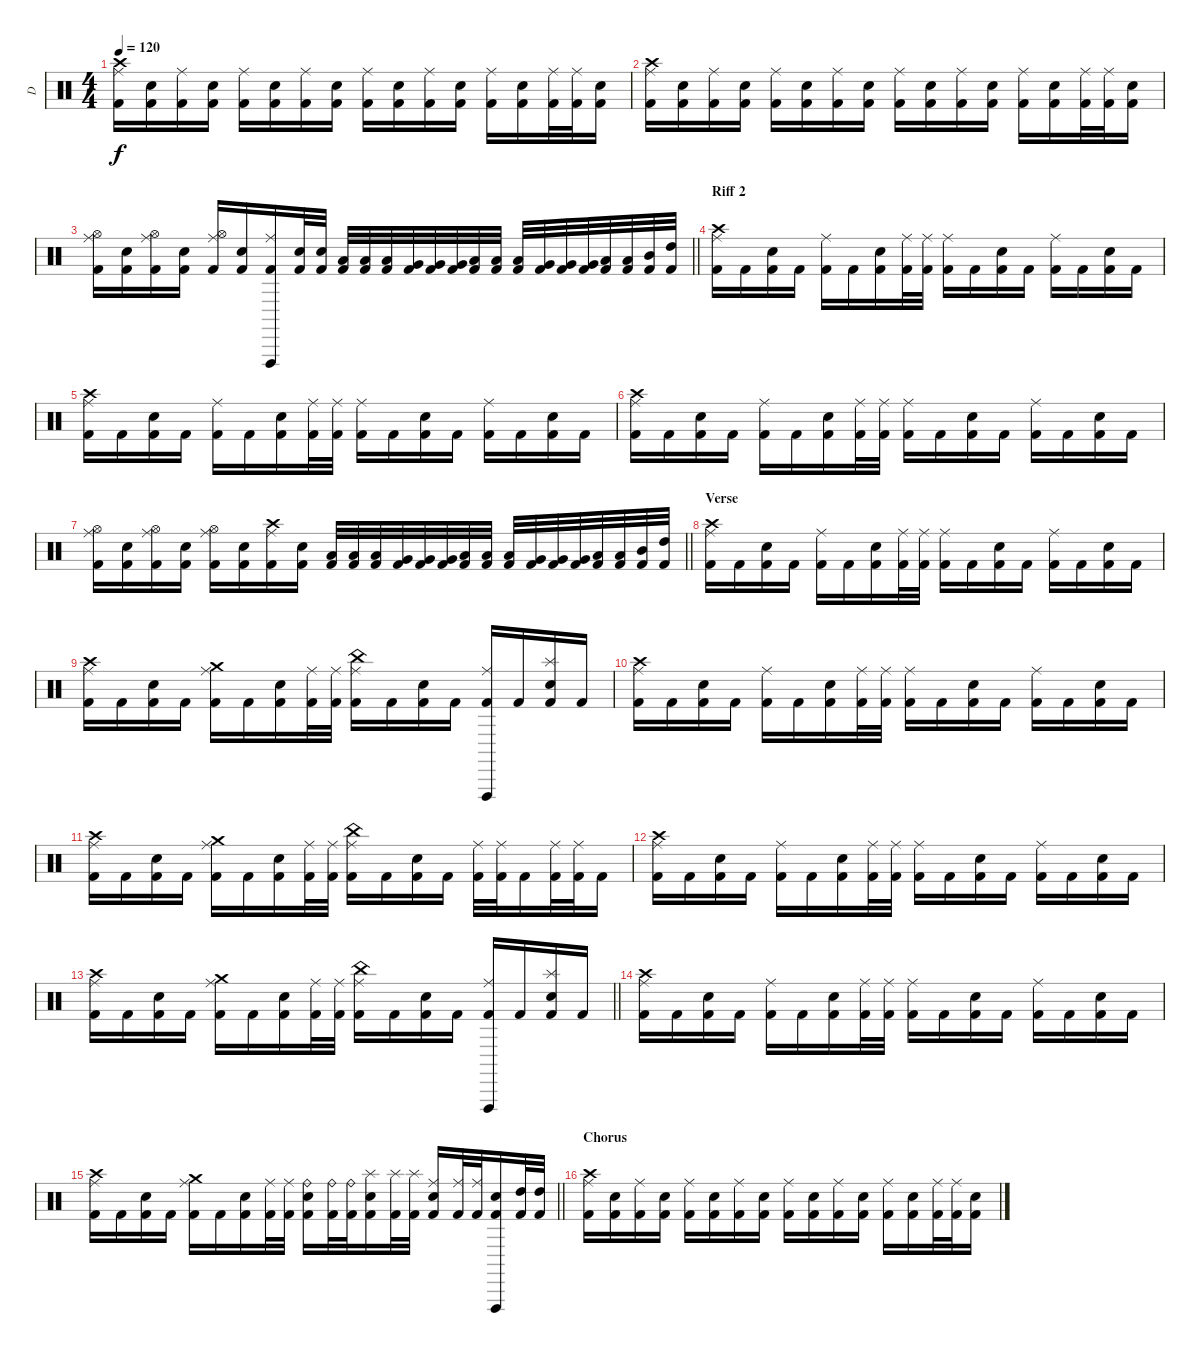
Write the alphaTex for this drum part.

\track ("D" "D") {instrument percussion}
\staff {score}
\articulation defaults
\ts (4 4)
\tempo 120
\clef neutral
\ks c
("Crash high (hit)" "Ride (middle)" "Kick (hit) 2").16{dy f} ("Electric Snare (hit)" "Kick (hit) 2").16 ("Ride (middle)" "Kick (hit) 2").16 ("Electric Snare (hit)" "Kick (hit) 2").16 ("Ride (middle)" "Kick (hit) 2").16 ("Electric Snare (hit)" "Kick (hit) 2").16 ("Ride (middle)" "Kick (hit) 2").16 ("Electric Snare (hit)" "Kick (hit) 2").16 ("Ride (middle)" "Kick (hit) 2").16 ("Electric Snare (hit)" "Kick (hit) 2").16 ("Ride (middle)" "Kick (hit) 2").16 ("Electric Snare (hit)" "Kick (hit) 2").16 ("Ride (middle)" "Kick (hit) 2").16 ("Electric Snare (hit)" "Kick (hit) 2").16 ("Ride (middle)" "Kick (hit) 2").32 ("Ride (middle)" "Kick (hit) 2").32 ("Electric Snare (hit)" "Kick (hit) 2").16 |
("Crash high (hit)" "Ride (middle)" "Kick (hit) 2").16 ("Electric Snare (hit)" "Kick (hit) 2").16 ("Ride (middle)" "Kick (hit) 2").16 ("Electric Snare (hit)" "Kick (hit) 2").16 ("Ride (middle)" "Kick (hit) 2").16 ("Electric Snare (hit)" "Kick (hit) 2").16 ("Ride (middle)" "Kick (hit) 2").16 ("Electric Snare (hit)" "Kick (hit) 2").16 ("Ride (middle)" "Kick (hit) 2").16 ("Electric Snare (hit)" "Kick (hit) 2").16 ("Ride (middle)" "Kick (hit) 2").16 ("Electric Snare (hit)" "Kick (hit) 2").16 ("Ride (middle)" "Kick (hit) 2").16 ("Electric Snare (hit)" "Kick (hit) 2").16 ("Ride (middle)" "Kick (hit) 2").32 ("Ride (middle)" "Kick (hit) 2").32 ("Electric Snare (hit)" "Kick (hit) 2").16 |
\barLineRight lightlight
("Hi-Hat (open)" "Ride (middle)" "Kick (hit) 2").16 ("Electric Snare (hit)" "Kick (hit) 2").16 ("Hi-Hat (open)" "Ride (middle)" "Kick (hit) 2").16 ("Electric Snare (hit)" "Kick (hit) 2").16 ("Hi-Hat (open)" "Ride (middle)" "Kick (hit) 2").16 ("Electric Snare (hit)" "Kick (hit) 2").16 ("Vibraslap (hit)" "Ride (middle)" "Kick (hit) 2").16 ("Electric Snare (hit)" "Kick (hit) 2").32 ("Electric Snare (hit)" "Kick (hit) 2").32 ("Low Tom (hit)" "Kick (hit) 2").32 ("Low Tom (hit)" "Kick (hit) 2").32 ("Low Tom (hit)" "Kick (hit) 2").32 ("Very Low Tom (hit)" "Kick (hit) 2").32 ("Very Low Tom (hit)" "Kick (hit) 2").32 ("Very Low Tom (hit)" "Kick (hit) 2").32 ("Low Floor Tom (hit)" "Kick (hit) 2").32 ("Low Floor Tom (hit)" "Kick (hit) 2").32 ("Low Floor Tom (hit)" "Kick (hit) 2").32 ("Very Low Tom (hit)" "Kick (hit) 2").32 ("Very Low Tom (hit)" "Kick (hit) 2").32 ("Very Low Tom (hit)" "Kick (hit) 2").32 ("Low Tom (hit)" "Kick (hit) 2").32 ("Low Tom (hit)" "Kick (hit) 2").32 ("Mid Tom (hit)" "Kick (hit) 2").32 ("High Tom (hit)" "Kick (hit) 2").32 |
\section ("" "Riff 2")
("Crash high (hit)" "Ride (middle)" "Kick (hit) 2").16 "Kick (hit) 2".16 ("Electric Snare (hit)" "Kick (hit) 2").16 "Kick (hit) 2".16 ("Ride (middle)" "Kick (hit) 2").16 "Kick (hit) 2".16 ("Electric Snare (hit)" "Kick (hit) 2").16 ("Ride (middle)" "Kick (hit) 2").32 ("Ride (middle)" "Kick (hit) 2").32 ("Ride (middle)" "Kick (hit) 2").16 "Kick (hit) 2".16 ("Electric Snare (hit)" "Kick (hit) 2").16 "Kick (hit) 2".16 ("Ride (middle)" "Kick (hit) 2").16 "Kick (hit) 2".16 ("Electric Snare (hit)" "Kick (hit) 2").16 "Kick (hit) 2".16 |
("Crash high (hit)" "Ride (middle)" "Kick (hit) 2").16 "Kick (hit) 2".16 ("Electric Snare (hit)" "Kick (hit) 2").16 "Kick (hit) 2".16 ("Ride (middle)" "Kick (hit) 2").16 "Kick (hit) 2".16 ("Electric Snare (hit)" "Kick (hit) 2").16 ("Ride (middle)" "Kick (hit) 2").32 ("Ride (middle)" "Kick (hit) 2").32 ("Ride (middle)" "Kick (hit) 2").16 "Kick (hit) 2".16 ("Electric Snare (hit)" "Kick (hit) 2").16 "Kick (hit) 2".16 ("Ride (middle)" "Kick (hit) 2").16 "Kick (hit) 2".16 ("Electric Snare (hit)" "Kick (hit) 2").16 "Kick (hit) 2".16 |
("Crash high (hit)" "Ride (middle)" "Kick (hit) 2").16 "Kick (hit) 2".16 ("Electric Snare (hit)" "Kick (hit) 2").16 "Kick (hit) 2".16 ("Ride (middle)" "Kick (hit) 2").16 "Kick (hit) 2".16 ("Electric Snare (hit)" "Kick (hit) 2").16 ("Ride (middle)" "Kick (hit) 2").32 ("Ride (middle)" "Kick (hit) 2").32 ("Ride (middle)" "Kick (hit) 2").16 "Kick (hit) 2".16 ("Electric Snare (hit)" "Kick (hit) 2").16 "Kick (hit) 2".16 ("Ride (middle)" "Kick (hit) 2").16 "Kick (hit) 2".16 ("Electric Snare (hit)" "Kick (hit) 2").16 "Kick (hit) 2".16 |
\barLineRight lightlight
("Hi-Hat (open)" "Ride (middle)" "Kick (hit) 2").16 ("Electric Snare (hit)" "Kick (hit) 2").16 ("Hi-Hat (open)" "Ride (middle)" "Kick (hit) 2").16 ("Electric Snare (hit)" "Kick (hit) 2").16 ("Hi-Hat (open)" "Ride (middle)" "Kick (hit) 2").16 ("Electric Snare (hit)" "Kick (hit) 2").16 ("Crash high (hit)" "Ride (middle)" "Kick (hit) 2").16 ("Electric Snare (hit)" "Kick (hit) 2").16 ("Low Tom (hit)" "Kick (hit) 2").32 ("Low Tom (hit)" "Kick (hit) 2").32 ("Low Tom (hit)" "Kick (hit) 2").32 ("Very Low Tom (hit)" "Kick (hit) 2").32 ("Very Low Tom (hit)" "Kick (hit) 2").32 ("Very Low Tom (hit)" "Kick (hit) 2").32 ("Low Floor Tom (hit)" "Kick (hit) 2").32 ("Low Floor Tom (hit)" "Kick (hit) 2").32 ("Low Floor Tom (hit)" "Kick (hit) 2").32 ("Very Low Tom (hit)" "Kick (hit) 2").32 ("Very Low Tom (hit)" "Kick (hit) 2").32 ("Very Low Tom (hit)" "Kick (hit) 2").32 ("Low Tom (hit)" "Kick (hit) 2").32 ("Low Tom (hit)" "Kick (hit) 2").32 ("Mid Tom (hit)" "Kick (hit) 2").32 ("High Tom (hit)" "Kick (hit) 2").32 |
\section ("" "Verse")
("Crash high (hit)" "Ride (middle)" "Kick (hit) 2").16 "Kick (hit) 2".16 ("Electric Snare (hit)" "Kick (hit) 2").16 "Kick (hit) 2".16 ("Ride (middle)" "Kick (hit) 2").16 "Kick (hit) 2".16 ("Electric Snare (hit)" "Kick (hit) 2").16 ("Ride (middle)" "Kick (hit) 2").32 ("Ride (middle)" "Kick (hit) 2").32 ("Ride (middle)" "Kick (hit) 2").16 "Kick (hit) 2".16 ("Electric Snare (hit)" "Kick (hit) 2").16 "Kick (hit) 2".16 ("Ride (middle)" "Kick (hit) 2").16 "Kick (hit) 2".16 ("Electric Snare (hit)" "Kick (hit) 2").16 "Kick (hit) 2".16 |
("Crash high (hit)" "Ride (middle)" "Kick (hit) 2").16 "Kick (hit) 2".16 ("Electric Snare (hit)" "Kick (hit) 2").16 "Kick (hit) 2".16 ("Crash medium (hit)" "Ride (middle)" "Kick (hit) 2").16 "Kick (hit) 2".16 ("Electric Snare (hit)" "Kick (hit) 2").16 ("Ride (middle)" "Kick (hit) 2").32 ("Ride (middle)" "Kick (hit) 2").32 ("China (hit)" "Ride (middle)" "Kick (hit) 2").16 "Kick (hit) 2".16 ("Electric Snare (hit)" "Kick (hit) 2").16 "Kick (hit) 2".16 ("Vibraslap (hit)" "Ride (middle)" "Kick (hit) 2").16 "Kick (hit) 2".16 ("Splash (hit)" "Electric Snare (hit)" "Kick (hit) 2").16 "Kick (hit) 2".16 |
("Crash high (hit)" "Ride (middle)" "Kick (hit) 2").16 "Kick (hit) 2".16 ("Electric Snare (hit)" "Kick (hit) 2").16 "Kick (hit) 2".16 ("Ride (middle)" "Kick (hit) 2").16 "Kick (hit) 2".16 ("Electric Snare (hit)" "Kick (hit) 2").16 ("Ride (middle)" "Kick (hit) 2").32 ("Ride (middle)" "Kick (hit) 2").32 ("Ride (middle)" "Kick (hit) 2").16 "Kick (hit) 2".16 ("Electric Snare (hit)" "Kick (hit) 2").16 "Kick (hit) 2".16 ("Ride (middle)" "Kick (hit) 2").16 "Kick (hit) 2".16 ("Electric Snare (hit)" "Kick (hit) 2").16 "Kick (hit) 2".16 |
("Crash high (hit)" "Ride (middle)" "Kick (hit) 2").16 "Kick (hit) 2".16 ("Electric Snare (hit)" "Kick (hit) 2").16 "Kick (hit) 2".16 ("Crash medium (hit)" "Ride (middle)" "Kick (hit) 2").16 "Kick (hit) 2".16 ("Electric Snare (hit)" "Kick (hit) 2").16 ("Ride (middle)" "Kick (hit) 2").32 ("Ride (middle)" "Kick (hit) 2").32 ("China (hit)" "Ride (middle)" "Kick (hit) 2").16 "Kick (hit) 2".16 ("Electric Snare (hit)" "Kick (hit) 2").16 "Kick (hit) 2".16 ("Ride (middle)" "Kick (hit) 2").32 ("Ride (middle)" "Kick (hit) 2").32 "Kick (hit) 2".16 ("Ride (middle)" "Kick (hit) 2").32 ("Ride (middle)" "Kick (hit) 2").32 "Kick (hit) 2".16 |
("Crash high (hit)" "Ride (middle)" "Kick (hit) 2").16 "Kick (hit) 2".16 ("Electric Snare (hit)" "Kick (hit) 2").16 "Kick (hit) 2".16 ("Ride (middle)" "Kick (hit) 2").16 "Kick (hit) 2".16 ("Electric Snare (hit)" "Kick (hit) 2").16 ("Ride (middle)" "Kick (hit) 2").32 ("Ride (middle)" "Kick (hit) 2").32 ("Ride (middle)" "Kick (hit) 2").16 "Kick (hit) 2".16 ("Electric Snare (hit)" "Kick (hit) 2").16 "Kick (hit) 2".16 ("Ride (middle)" "Kick (hit) 2").16 "Kick (hit) 2".16 ("Electric Snare (hit)" "Kick (hit) 2").16 "Kick (hit) 2".16 |
\barLineRight lightlight
("Crash high (hit)" "Ride (middle)" "Kick (hit) 2").16 "Kick (hit) 2".16 ("Electric Snare (hit)" "Kick (hit) 2").16 "Kick (hit) 2".16 ("Crash medium (hit)" "Ride (middle)" "Kick (hit) 2").16 "Kick (hit) 2".16 ("Electric Snare (hit)" "Kick (hit) 2").16 ("Ride (middle)" "Kick (hit) 2").32 ("Ride (middle)" "Kick (hit) 2").32 ("China (hit)" "Ride (middle)" "Kick (hit) 2").16 "Kick (hit) 2".16 ("Electric Snare (hit)" "Kick (hit) 2").16 "Kick (hit) 2".16 ("Vibraslap (hit)" "Ride (middle)" "Kick (hit) 2").16 "Kick (hit) 2".16 ("Splash (hit)" "Electric Snare (hit)" "Kick (hit) 2").16 "Kick (hit) 2".16 |
("Crash high (hit)" "Ride (middle)" "Kick (hit) 2").16 "Kick (hit) 2".16 ("Electric Snare (hit)" "Kick (hit) 2").16 "Kick (hit) 2".16 ("Ride (middle)" "Kick (hit) 2").16 "Kick (hit) 2".16 ("Electric Snare (hit)" "Kick (hit) 2").16 ("Ride (middle)" "Kick (hit) 2").32 ("Ride (middle)" "Kick (hit) 2").32 ("Ride (middle)" "Kick (hit) 2").16 "Kick (hit) 2".16 ("Electric Snare (hit)" "Kick (hit) 2").16 "Kick (hit) 2".16 ("Ride (middle)" "Kick (hit) 2").16 "Kick (hit) 2".16 ("Electric Snare (hit)" "Kick (hit) 2").16 "Kick (hit) 2".16 |
\barLineRight lightlight
("Crash high (hit)" "Ride (middle)" "Kick (hit) 2").16 "Kick (hit) 2".16 ("Electric Snare (hit)" "Kick (hit) 2").16 "Kick (hit) 2".16 ("Crash medium (hit)" "Ride (middle)" "Kick (hit) 2").16 "Kick (hit) 2".16 ("Electric Snare (hit)" "Kick (hit) 2").16 ("Ride (middle)" "Kick (hit) 2").32 ("Ride (middle)" "Kick (hit) 2").32 ("Ride (bell)" "Electric Snare (hit)" "Kick (hit) 2").16 ("Ride (bell)" "Kick (hit) 2").32 ("Ride (bell)" "Kick (hit) 2").32 ("Splash (hit)" "Electric Snare (hit)" "Kick (hit) 2").16 ("Splash (hit)" "Kick (hit) 2").32 ("Splash (hit)" "Kick (hit) 2").32 ("Ride (middle)" "Electric Snare (hit)" "Kick (hit) 2").16 ("Ride (middle)" "Kick (hit) 2").32 ("Ride (middle)" "Kick (hit) 2").32 ("Vibraslap (hit)" "Electric Snare (hit)" "Kick (hit) 2").16 ("High Tom (hit)" "Kick (hit) 2").32 ("High Tom (hit)" "Kick (hit) 2").32 |
\section ("" "Chorus")
("Crash high (hit)" "Ride (middle)" "Kick (hit) 2").16 ("Electric Snare (hit)" "Kick (hit) 2").16 ("Ride (middle)" "Kick (hit) 2").16 ("Electric Snare (hit)" "Kick (hit) 2").16 ("Ride (middle)" "Kick (hit) 2").16 ("Electric Snare (hit)" "Kick (hit) 2").16 ("Ride (middle)" "Kick (hit) 2").16 ("Electric Snare (hit)" "Kick (hit) 2").16 ("Ride (middle)" "Kick (hit) 2").16 ("Electric Snare (hit)" "Kick (hit) 2").16 ("Ride (middle)" "Kick (hit) 2").16 ("Electric Snare (hit)" "Kick (hit) 2").16 ("Ride (middle)" "Kick (hit) 2").16 ("Electric Snare (hit)" "Kick (hit) 2").16 ("Ride (middle)" "Kick (hit) 2").32 ("Ride (middle)" "Kick (hit) 2").32 ("Electric Snare (hit)" "Kick (hit) 2").16
